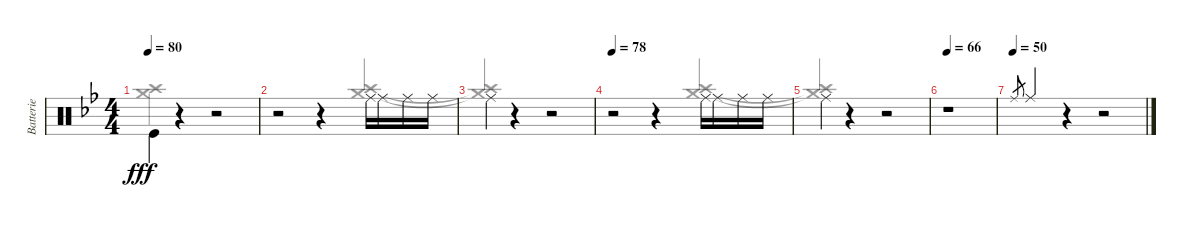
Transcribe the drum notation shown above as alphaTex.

\track ("Batterie" "Batterie") {instrument percussion}
\staff {score}
\articulation defaults
\voice
\ts (4 4)
\tempo 80
\clef neutral
\ks bb "Kick (hit)".4{dy fff beam Down}
r.4 r.2 |
r.2 r.4 "Ride (middle)".16{beam Down} "Ride (middle)".16{beam Down} "Ride (middle)".16{beam Down} "Ride (middle)".16{beam Down} |
"Ride (middle)".4{beam Down} r.4 r.2 |
\tempo 78
r.2 r.4 "Ride (middle)".16{beam Down} "Ride (middle)".16{beam Down} "Ride (middle)".16{beam Down} "Ride (middle)".16{beam Down} |
"Ride (middle)".4{beam Down} r.4 r.2 |
\tempo 66
r.1 |
\tempo (50)
"Ride (middle)".8{gr} "Ride (middle)".4{beam Up} r.4 r.2
\voice
\clef neutral
\ottava regular
\simile none
\ks bb
("Crash medium (hit)" "Crash high (hit)").4{dy fff} r.4 r.2 |
r.2 r.4 ("Crash medium (hit)" "Crash high (hit)").4{beam Up} |
("Crash medium (hit)"{t} "Crash high (hit)"{t}).4{beam Up} r.4 r.2 |
r.2 r.4 ("Crash medium (hit)" "Crash high (hit)").4{beam Up} |
("Crash medium (hit)"{t} "Crash high (hit)"{t}).4{beam Up} r.4 r.2 |
|
